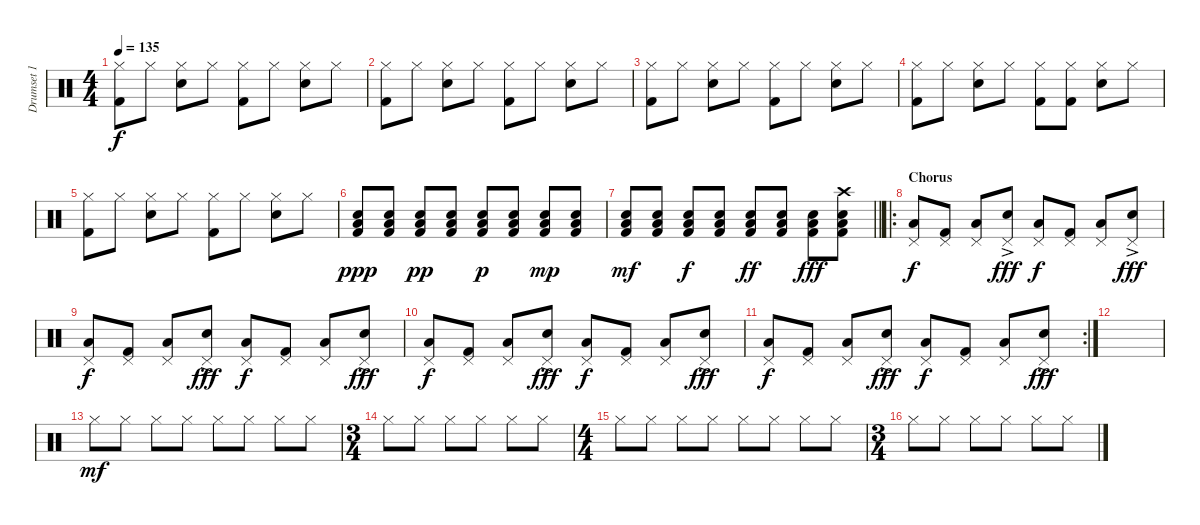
\track ("Drumset 1" "Drumset 1") {instrument percussion}
\staff {score}
\articulation defaults
\ts (4 4)
\tempo 135
\clef neutral
\ks c
("Hi-Hat (closed)" "Kick (hit) 2").8{dy f} "Hi-Hat (closed)".8 ("Hi-Hat (closed)" "Electric Snare (hit)").8 "Hi-Hat (closed)".8 ("Hi-Hat (closed)" "Kick (hit) 2").8 "Hi-Hat (closed)".8 ("Hi-Hat (closed)" "Electric Snare (hit)").8 "Hi-Hat (closed)".8 |
("Hi-Hat (closed)" "Kick (hit) 2").8 "Hi-Hat (closed)".8 ("Hi-Hat (closed)" "Electric Snare (hit)").8 "Hi-Hat (closed)".8 ("Hi-Hat (closed)" "Kick (hit) 2").8 "Hi-Hat (closed)".8 ("Hi-Hat (closed)" "Electric Snare (hit)").8 "Hi-Hat (closed)".8 |
("Hi-Hat (closed)" "Kick (hit) 2").8 "Hi-Hat (closed)".8 ("Hi-Hat (closed)" "Electric Snare (hit)").8 "Hi-Hat (closed)".8 ("Hi-Hat (closed)" "Kick (hit) 2").8 "Hi-Hat (closed)".8 ("Hi-Hat (closed)" "Electric Snare (hit)").8 "Hi-Hat (closed)".8 |
("Hi-Hat (closed)" "Kick (hit) 2").8 "Hi-Hat (closed)".8 ("Hi-Hat (closed)" "Electric Snare (hit)").8 "Hi-Hat (closed)".8 ("Hi-Hat (closed)" "Kick (hit) 2").8 ("Hi-Hat (closed)" "Kick (hit) 2").8 ("Hi-Hat (closed)" "Electric Snare (hit)").8 "Hi-Hat (closed)".8 |
("Hi-Hat (closed)" "Kick (hit) 2").8 "Hi-Hat (closed)".8 ("Hi-Hat (closed)" "Electric Snare (hit)").8 "Hi-Hat (closed)".8 ("Hi-Hat (closed)" "Kick (hit) 2").8 "Hi-Hat (closed)".8 ("Hi-Hat (closed)" "Electric Snare (hit)").8 "Hi-Hat (closed)".8 |
("Low Floor Tom (hit)" "Electric Snare (hit)" "Kick (hit) 2").8{dy ppp} ("Low Floor Tom (hit)" "Electric Snare (hit)" "Kick (hit) 2").8 ("Low Floor Tom (hit)" "Electric Snare (hit)" "Kick (hit) 2").8{dy pp} ("Low Floor Tom (hit)" "Electric Snare (hit)" "Kick (hit) 2").8 ("Low Floor Tom (hit)" "Electric Snare (hit)" "Kick (hit) 2").8{dy p} ("Low Floor Tom (hit)" "Electric Snare (hit)" "Kick (hit) 2").8 ("Low Floor Tom (hit)" "Electric Snare (hit)" "Kick (hit) 2").8{dy mp} ("Low Floor Tom (hit)" "Electric Snare (hit)" "Kick (hit) 2").8 |
\barLineRight lightlight
("Low Floor Tom (hit)" "Electric Snare (hit)" "Kick (hit) 2").8{dy mf} ("Low Floor Tom (hit)" "Electric Snare (hit)" "Kick (hit) 2").8 ("Low Floor Tom (hit)" "Electric Snare (hit)" "Kick (hit) 2").8{dy f} ("Low Floor Tom (hit)" "Electric Snare (hit)" "Kick (hit) 2").8 ("Low Floor Tom (hit)" "Electric Snare (hit)" "Kick (hit) 2").8{dy ff} ("Low Floor Tom (hit)" "Electric Snare (hit)" "Kick (hit) 2").8 ("Low Floor Tom (hit)" "Electric Snare (hit)" "Kick (hit) 2").8{dy fff} ("Crash high (hit)" "Low Floor Tom (hit)" "Electric Snare (hit)" "Kick (hit) 2").8 |
\ro
\section ("" "Chorus")
("Pedal Hi-Hat (hit)" "Low Floor Tom (hit)").8{dy f} ("Pedal Hi-Hat (hit)" "Kick (hit) 2").8 ("Pedal Hi-Hat (hit)" "Low Floor Tom (hit)").8 ("Pedal Hi-Hat (hit)" "Electric Snare (hit)"{ac}).8{dy fff} ("Pedal Hi-Hat (hit)" "Low Floor Tom (hit)").8{dy f} ("Pedal Hi-Hat (hit)" "Kick (hit) 2").8 ("Pedal Hi-Hat (hit)" "Low Floor Tom (hit)").8 ("Pedal Hi-Hat (hit)" "Electric Snare (hit)"{ac}).8{dy fff} |
("Pedal Hi-Hat (hit)" "Low Floor Tom (hit)").8{dy f} ("Pedal Hi-Hat (hit)" "Kick (hit) 2").8 ("Pedal Hi-Hat (hit)" "Low Floor Tom (hit)").8 ("Pedal Hi-Hat (hit)" "Electric Snare (hit)"{ac}).8{dy fff} ("Pedal Hi-Hat (hit)" "Low Floor Tom (hit)").8{dy f} ("Pedal Hi-Hat (hit)" "Kick (hit) 2").8 ("Pedal Hi-Hat (hit)" "Low Floor Tom (hit)").8 ("Pedal Hi-Hat (hit)" "Electric Snare (hit)"{ac}).8{dy fff} |
("Pedal Hi-Hat (hit)" "Low Floor Tom (hit)").8{dy f} ("Pedal Hi-Hat (hit)" "Kick (hit) 2").8 ("Pedal Hi-Hat (hit)" "Low Floor Tom (hit)").8 ("Pedal Hi-Hat (hit)" "Electric Snare (hit)"{ac}).8{dy fff} ("Pedal Hi-Hat (hit)" "Low Floor Tom (hit)").8{dy f} ("Pedal Hi-Hat (hit)" "Kick (hit) 2").8 ("Pedal Hi-Hat (hit)" "Low Floor Tom (hit)").8 ("Pedal Hi-Hat (hit)" "Electric Snare (hit)"{ac}).8{dy fff} |
\rc 2
("Pedal Hi-Hat (hit)" "Low Floor Tom (hit)").8{dy f} ("Pedal Hi-Hat (hit)" "Kick (hit) 2").8 ("Pedal Hi-Hat (hit)" "Low Floor Tom (hit)").8 ("Pedal Hi-Hat (hit)" "Electric Snare (hit)"{ac}).8{dy fff} ("Pedal Hi-Hat (hit)" "Low Floor Tom (hit)").8{dy f} ("Pedal Hi-Hat (hit)" "Kick (hit) 2").8 ("Pedal Hi-Hat (hit)" "Low Floor Tom (hit)").8 ("Pedal Hi-Hat (hit)" "Electric Snare (hit)"{ac}).8{dy fff} |
|
"Hi-Hat (closed)".8{dy mf} "Hi-Hat (closed)".8 "Hi-Hat (closed)".8 "Hi-Hat (closed)".8 "Hi-Hat (closed)".8 "Hi-Hat (closed)".8 "Hi-Hat (closed)".8 "Hi-Hat (closed)".8 |
\ts (3 4)
"Hi-Hat (closed)".8 "Hi-Hat (closed)".8 "Hi-Hat (closed)".8 "Hi-Hat (closed)".8 "Hi-Hat (closed)".8 "Hi-Hat (closed)".8 |
\ts (4 4)
"Hi-Hat (closed)".8 "Hi-Hat (closed)".8 "Hi-Hat (closed)".8 "Hi-Hat (closed)".8 "Hi-Hat (closed)".8 "Hi-Hat (closed)".8 "Hi-Hat (closed)".8 "Hi-Hat (closed)".8 |
\ts (3 4)
"Hi-Hat (closed)".8 "Hi-Hat (closed)".8 "Hi-Hat (closed)".8 "Hi-Hat (closed)".8 "Hi-Hat (closed)".8 "Hi-Hat (closed)".8
